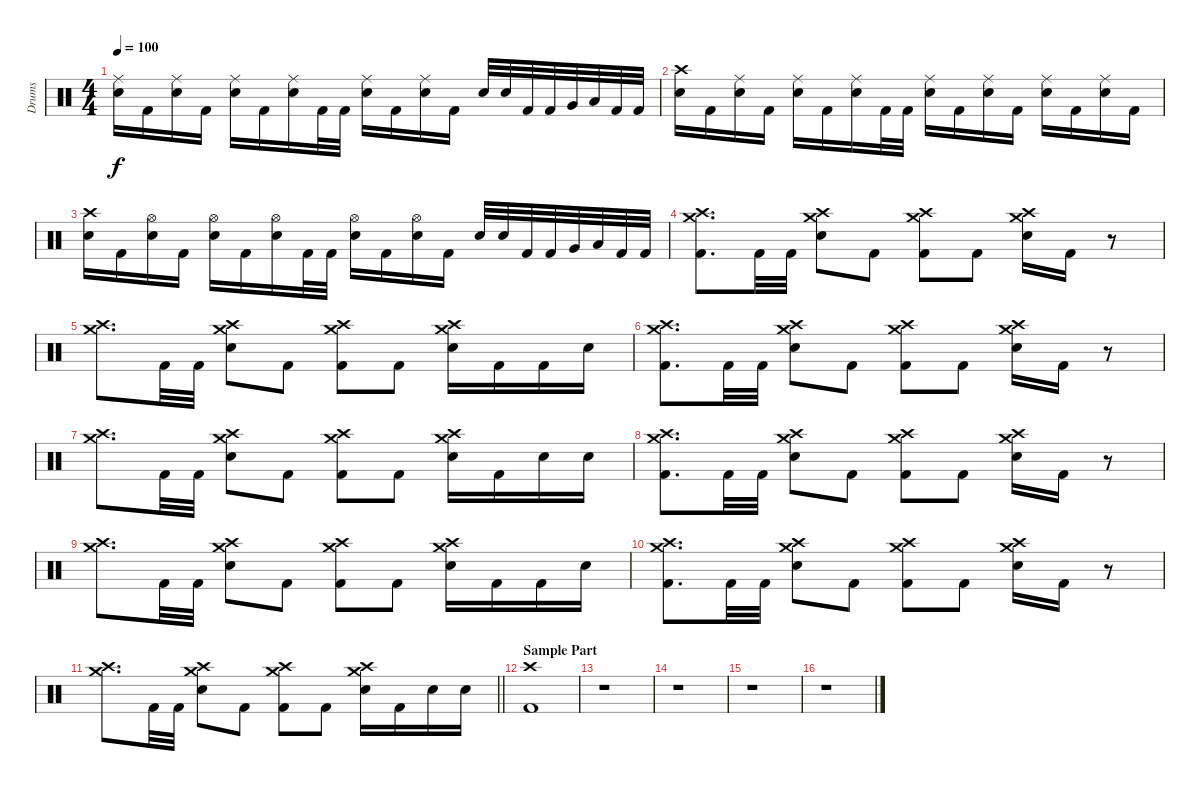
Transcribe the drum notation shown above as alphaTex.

\track ("Drums" "Drums") {instrument percussion}
\staff {score}
\articulation defaults
\ts (4 4)
\tempo 100
\clef neutral
\ks c
("Electric Snare (hit)" "Ride (middle)").16{dy f} "Kick (hit) 2".16 ("Electric Snare (hit)" "Ride (middle)").16 "Kick (hit) 2".16 ("Electric Snare (hit)" "Ride (middle)").16 "Kick (hit) 2".16 ("Electric Snare (hit)" "Ride (middle)").16 "Kick (hit) 2".32 "Kick (hit) 2".32 ("Electric Snare (hit)" "Ride (middle)").16 "Kick (hit) 2".16 ("Electric Snare (hit)" "Ride (middle)").16 "Kick (hit) 2".16 "Electric Snare (hit)".32 "Electric Snare (hit)".32 "Kick (hit) 2".32 "Kick (hit) 2".32 "Very Low Tom (hit)".32 "Low Floor Tom (hit)".32 "Kick (hit) 2".32 "Kick (hit) 2".32 |
("Electric Snare (hit)" "Crash high (hit)").16 "Kick (hit) 2".16 ("Electric Snare (hit)" "Ride (middle)").16 "Kick (hit) 2".16 ("Electric Snare (hit)" "Ride (middle)").16 "Kick (hit) 2".16 ("Electric Snare (hit)" "Ride (middle)").16 "Kick (hit) 2".32 "Kick (hit) 2".32 ("Electric Snare (hit)" "Ride (middle)").16 "Kick (hit) 2".16 ("Electric Snare (hit)" "Ride (middle)").16 "Kick (hit) 2".16 ("Electric Snare (hit)" "Ride (middle)").16 "Kick (hit) 2".16 ("Electric Snare (hit)" "Ride (middle)").16 "Kick (hit) 2".16 |
("Electric Snare (hit)" "Crash high (hit)").16 "Kick (hit) 2".16 ("Electric Snare (hit)" "Hi-Hat (open)").16 "Kick (hit) 2".16 ("Electric Snare (hit)" "Hi-Hat (open)").16 "Kick (hit) 2".16 ("Electric Snare (hit)" "Hi-Hat (open)").16 "Kick (hit) 2".32 "Kick (hit) 2".32 ("Electric Snare (hit)" "Hi-Hat (open)").16 "Kick (hit) 2".16 ("Electric Snare (hit)" "Hi-Hat (open)").16 "Kick (hit) 2".16 "Electric Snare (hit)".32 "Electric Snare (hit)".32 "Kick (hit) 2".32 "Kick (hit) 2".32 "Very Low Tom (hit)".32 "Low Floor Tom (hit)".32 "Kick (hit) 2".32 "Kick (hit) 2".32 |
("Kick (hit) 2" "Crash medium (hit)" "Crash high (hit)").8{d} "Kick (hit) 2".32 "Kick (hit) 2".32 ("Electric Snare (hit)" "Crash high (hit)" "Crash medium (hit)").8 "Kick (hit) 2".8 ("Kick (hit) 2" "Crash high (hit)" "Crash medium (hit)").8 "Kick (hit) 2".8 ("Electric Snare (hit)" "Crash high (hit)" "Crash medium (hit)").16 "Kick (hit) 2".16 r.8 |
("Crash medium (hit)" "Crash high (hit)").8{d} "Kick (hit) 2".32 "Kick (hit) 2".32 ("Electric Snare (hit)" "Crash high (hit)" "Crash medium (hit)").8 "Kick (hit) 2".8 ("Kick (hit) 2" "Crash high (hit)" "Crash medium (hit)").8 "Kick (hit) 2".8 ("Electric Snare (hit)" "Crash high (hit)" "Crash medium (hit)").16 "Kick (hit) 2".16 "Kick (hit) 2".16 "Electric Snare (hit)".16 |
("Kick (hit) 2" "Crash medium (hit)" "Crash high (hit)").8{d} "Kick (hit) 2".32 "Kick (hit) 2".32 ("Electric Snare (hit)" "Crash high (hit)" "Crash medium (hit)").8 "Kick (hit) 2".8 ("Kick (hit) 2" "Crash high (hit)" "Crash medium (hit)").8 "Kick (hit) 2".8 ("Electric Snare (hit)" "Crash high (hit)" "Crash medium (hit)").16 "Kick (hit) 2".16 r.8 |
("Crash medium (hit)" "Crash high (hit)").8{d} "Kick (hit) 2".32 "Kick (hit) 2".32 ("Electric Snare (hit)" "Crash high (hit)" "Crash medium (hit)").8 "Kick (hit) 2".8 ("Kick (hit) 2" "Crash high (hit)" "Crash medium (hit)").8 "Kick (hit) 2".8 ("Electric Snare (hit)" "Crash high (hit)" "Crash medium (hit)").16 "Kick (hit) 2".16 "Electric Snare (hit)".16 "Electric Snare (hit)".16 |
("Kick (hit) 2" "Crash medium (hit)" "Crash high (hit)").8{d} "Kick (hit) 2".32 "Kick (hit) 2".32 ("Electric Snare (hit)" "Crash high (hit)" "Crash medium (hit)").8 "Kick (hit) 2".8 ("Kick (hit) 2" "Crash high (hit)" "Crash medium (hit)").8 "Kick (hit) 2".8 ("Electric Snare (hit)" "Crash high (hit)" "Crash medium (hit)").16 "Kick (hit) 2".16 r.8 |
("Crash medium (hit)" "Crash high (hit)").8{d} "Kick (hit) 2".32 "Kick (hit) 2".32 ("Electric Snare (hit)" "Crash high (hit)" "Crash medium (hit)").8 "Kick (hit) 2".8 ("Kick (hit) 2" "Crash high (hit)" "Crash medium (hit)").8 "Kick (hit) 2".8 ("Electric Snare (hit)" "Crash high (hit)" "Crash medium (hit)").16 "Kick (hit) 2".16 "Kick (hit) 2".16 "Electric Snare (hit)".16 |
("Kick (hit) 2" "Crash medium (hit)" "Crash high (hit)").8{d} "Kick (hit) 2".32 "Kick (hit) 2".32 ("Electric Snare (hit)" "Crash high (hit)" "Crash medium (hit)").8 "Kick (hit) 2".8 ("Kick (hit) 2" "Crash high (hit)" "Crash medium (hit)").8 "Kick (hit) 2".8 ("Electric Snare (hit)" "Crash high (hit)" "Crash medium (hit)").16 "Kick (hit) 2".16 r.8 |
\barLineRight lightlight
("Crash medium (hit)" "Crash high (hit)").8{d} "Kick (hit) 2".32 "Kick (hit) 2".32 ("Electric Snare (hit)" "Crash high (hit)" "Crash medium (hit)").8 "Kick (hit) 2".8 ("Kick (hit) 2" "Crash high (hit)" "Crash medium (hit)").8 "Kick (hit) 2".8 ("Electric Snare (hit)" "Crash high (hit)" "Crash medium (hit)").16 "Kick (hit) 2".16 "Electric Snare (hit)".16 "Electric Snare (hit)".16 |
\section ("" "Sample Part")
("Kick (hit) 2" "Crash high (hit)").1 |
r.1 |
r.1 |
r.1 |
r.1
